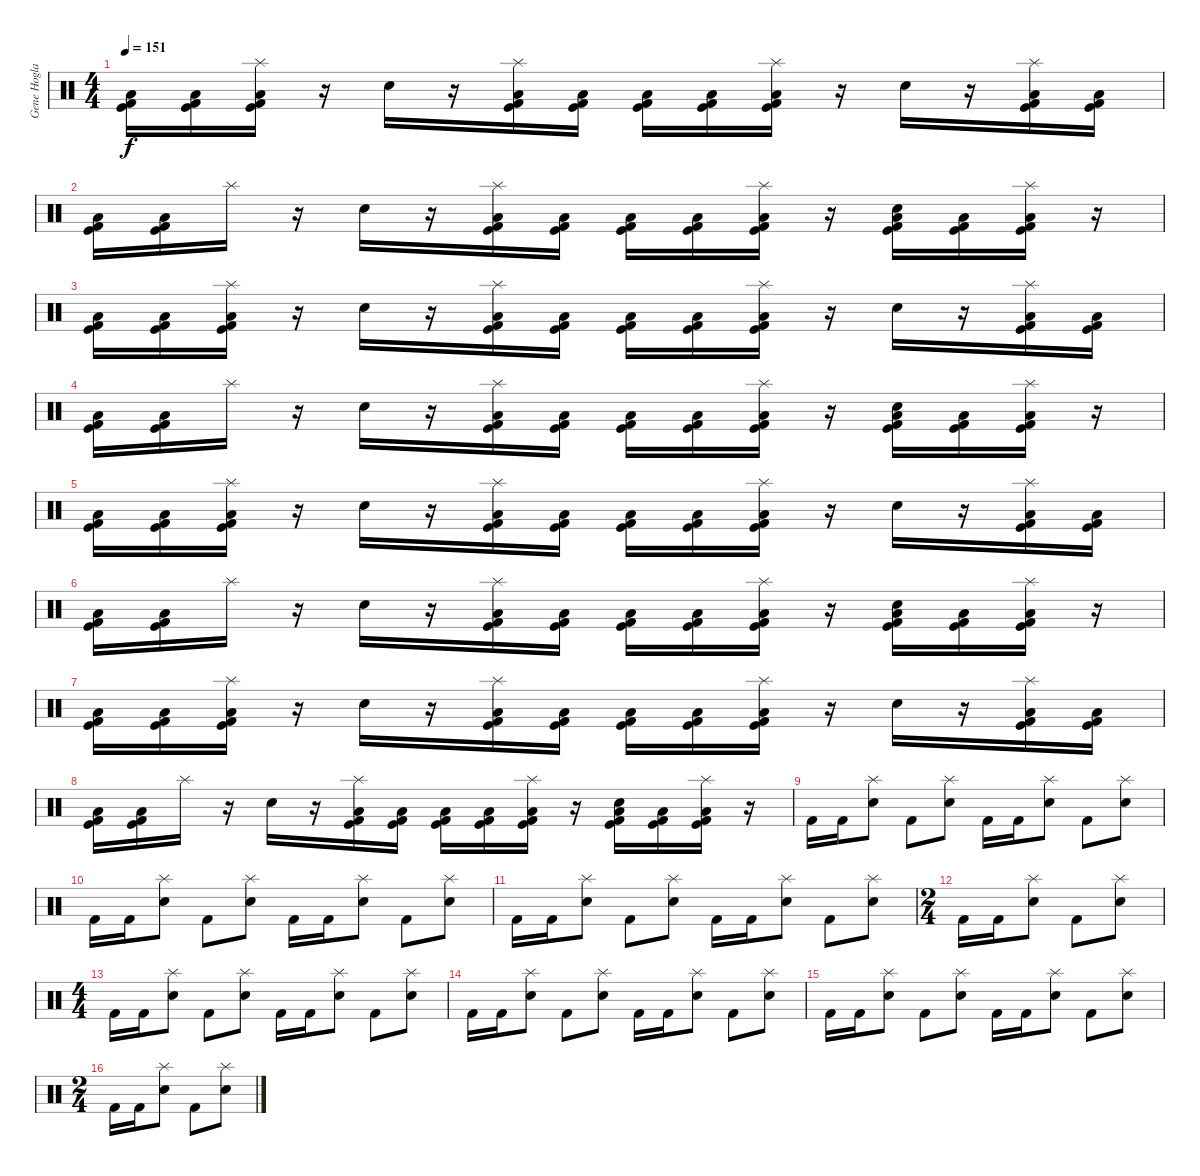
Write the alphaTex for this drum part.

\track ("Gene Hoglan" "Gene Hogla") {instrument percussion}
\staff {score}
\articulation defaults
\ts (4 4)
\tempo 151
\clef neutral
\ks c
("Low Floor Tom (hit)" "Kick (hit) 2" "Kick (hit)").16{dy f} ("Kick (hit) 2" "Low Floor Tom (hit)" "Kick (hit)").16 ("Kick (hit) 2" "Low Floor Tom (hit)" "Splash (hit)" "Kick (hit)").16 r.16 "Snare (hit) 2".16 r.16 ("Low Floor Tom (hit)" "Kick (hit) 2" "Splash (hit)" "Kick (hit)").16 ("Low Floor Tom (hit)" "Kick (hit) 2" "Kick (hit)").16 ("Low Floor Tom (hit)" "Kick (hit) 2" "Kick (hit)").16 ("Low Floor Tom (hit)" "Kick (hit) 2" "Kick (hit)").16 ("Low Floor Tom (hit)" "Kick (hit) 2" "Splash (hit)" "Kick (hit)").16 r.16 "Snare (hit) 2".16 r.16 ("Low Floor Tom (hit)" "Kick (hit) 2" "Splash (hit)" "Kick (hit)").16 ("Low Floor Tom (hit)" "Kick (hit) 2" "Kick (hit)").16 |
("Low Floor Tom (hit)" "Kick (hit) 2" "Kick (hit)").16 ("Low Floor Tom (hit)" "Kick (hit) 2" "Kick (hit)").16 "Splash (hit)".16 r.16 "Snare (hit) 2".16 r.16 ("Splash (hit)" "Low Floor Tom (hit)" "Kick (hit) 2" "Kick (hit)").16 ("Low Floor Tom (hit)" "Kick (hit) 2" "Kick (hit)").16 ("Low Floor Tom (hit)" "Kick (hit) 2" "Kick (hit)").16 ("Low Floor Tom (hit)" "Kick (hit) 2" "Kick (hit)").16 ("Splash (hit)" "Low Floor Tom (hit)" "Kick (hit) 2" "Kick (hit)").16 r.16 ("Kick (hit) 2" "Low Floor Tom (hit)" "Kick (hit)" "Snare (hit) 2").16 ("Kick (hit) 2" "Low Floor Tom (hit)" "Kick (hit)").16 ("Splash (hit)" "Kick (hit) 2" "Low Floor Tom (hit)" "Kick (hit)").16 r.16 |
("Low Floor Tom (hit)" "Kick (hit) 2" "Kick (hit)").16 ("Kick (hit) 2" "Low Floor Tom (hit)" "Kick (hit)").16 ("Kick (hit) 2" "Low Floor Tom (hit)" "Splash (hit)" "Kick (hit)").16 r.16 "Snare (hit) 2".16 r.16 ("Low Floor Tom (hit)" "Kick (hit) 2" "Splash (hit)" "Kick (hit)").16 ("Low Floor Tom (hit)" "Kick (hit) 2" "Kick (hit)").16 ("Low Floor Tom (hit)" "Kick (hit) 2" "Kick (hit)").16 ("Low Floor Tom (hit)" "Kick (hit) 2" "Kick (hit)").16 ("Low Floor Tom (hit)" "Kick (hit) 2" "Splash (hit)" "Kick (hit)").16 r.16 "Snare (hit) 2".16 r.16 ("Low Floor Tom (hit)" "Kick (hit) 2" "Splash (hit)" "Kick (hit)").16 ("Low Floor Tom (hit)" "Kick (hit) 2" "Kick (hit)").16 |
("Low Floor Tom (hit)" "Kick (hit) 2" "Kick (hit)").16 ("Low Floor Tom (hit)" "Kick (hit) 2" "Kick (hit)").16 "Splash (hit)".16 r.16 "Snare (hit) 2".16 r.16 ("Splash (hit)" "Low Floor Tom (hit)" "Kick (hit) 2" "Kick (hit)").16 ("Low Floor Tom (hit)" "Kick (hit) 2" "Kick (hit)").16 ("Low Floor Tom (hit)" "Kick (hit) 2" "Kick (hit)").16 ("Low Floor Tom (hit)" "Kick (hit) 2" "Kick (hit)").16 ("Splash (hit)" "Low Floor Tom (hit)" "Kick (hit) 2" "Kick (hit)").16 r.16 ("Kick (hit) 2" "Low Floor Tom (hit)" "Kick (hit)" "Snare (hit) 2").16 ("Kick (hit) 2" "Low Floor Tom (hit)" "Kick (hit)").16 ("Splash (hit)" "Kick (hit) 2" "Low Floor Tom (hit)" "Kick (hit)").16 r.16 |
("Low Floor Tom (hit)" "Kick (hit) 2" "Kick (hit)").16 ("Kick (hit) 2" "Low Floor Tom (hit)" "Kick (hit)").16 ("Kick (hit) 2" "Low Floor Tom (hit)" "Splash (hit)" "Kick (hit)").16 r.16 "Snare (hit) 2".16 r.16 ("Low Floor Tom (hit)" "Kick (hit) 2" "Splash (hit)" "Kick (hit)").16 ("Low Floor Tom (hit)" "Kick (hit) 2" "Kick (hit)").16 ("Low Floor Tom (hit)" "Kick (hit) 2" "Kick (hit)").16 ("Low Floor Tom (hit)" "Kick (hit) 2" "Kick (hit)").16 ("Low Floor Tom (hit)" "Kick (hit) 2" "Splash (hit)" "Kick (hit)").16 r.16 "Snare (hit) 2".16 r.16 ("Low Floor Tom (hit)" "Kick (hit) 2" "Splash (hit)" "Kick (hit)").16 ("Low Floor Tom (hit)" "Kick (hit) 2" "Kick (hit)").16 |
("Low Floor Tom (hit)" "Kick (hit) 2" "Kick (hit)").16 ("Low Floor Tom (hit)" "Kick (hit) 2" "Kick (hit)").16 "Splash (hit)".16 r.16 "Snare (hit) 2".16 r.16 ("Splash (hit)" "Low Floor Tom (hit)" "Kick (hit) 2" "Kick (hit)").16 ("Low Floor Tom (hit)" "Kick (hit) 2" "Kick (hit)").16 ("Low Floor Tom (hit)" "Kick (hit) 2" "Kick (hit)").16 ("Low Floor Tom (hit)" "Kick (hit) 2" "Kick (hit)").16 ("Splash (hit)" "Low Floor Tom (hit)" "Kick (hit) 2" "Kick (hit)").16 r.16 ("Kick (hit) 2" "Low Floor Tom (hit)" "Kick (hit)" "Snare (hit) 2").16 ("Kick (hit) 2" "Low Floor Tom (hit)" "Kick (hit)").16 ("Splash (hit)" "Kick (hit) 2" "Low Floor Tom (hit)" "Kick (hit)").16 r.16 |
("Low Floor Tom (hit)" "Kick (hit) 2" "Kick (hit)").16 ("Kick (hit) 2" "Low Floor Tom (hit)" "Kick (hit)").16 ("Kick (hit) 2" "Low Floor Tom (hit)" "Splash (hit)" "Kick (hit)").16 r.16 "Snare (hit) 2".16 r.16 ("Low Floor Tom (hit)" "Kick (hit) 2" "Splash (hit)" "Kick (hit)").16 ("Low Floor Tom (hit)" "Kick (hit) 2" "Kick (hit)").16 ("Low Floor Tom (hit)" "Kick (hit) 2" "Kick (hit)").16 ("Low Floor Tom (hit)" "Kick (hit) 2" "Kick (hit)").16 ("Low Floor Tom (hit)" "Kick (hit) 2" "Splash (hit)" "Kick (hit)").16 r.16 "Snare (hit) 2".16 r.16 ("Low Floor Tom (hit)" "Kick (hit) 2" "Splash (hit)" "Kick (hit)").16 ("Low Floor Tom (hit)" "Kick (hit) 2" "Kick (hit)").16 |
("Low Floor Tom (hit)" "Kick (hit) 2" "Kick (hit)").16 ("Low Floor Tom (hit)" "Kick (hit) 2" "Kick (hit)").16 "Splash (hit)".16 r.16 "Snare (hit) 2".16 r.16 ("Splash (hit)" "Low Floor Tom (hit)" "Kick (hit) 2" "Kick (hit)").16 ("Low Floor Tom (hit)" "Kick (hit) 2" "Kick (hit)").16 ("Low Floor Tom (hit)" "Kick (hit) 2" "Kick (hit)").16 ("Low Floor Tom (hit)" "Kick (hit) 2" "Kick (hit)").16 ("Splash (hit)" "Low Floor Tom (hit)" "Kick (hit) 2" "Kick (hit)").16 r.16 ("Kick (hit) 2" "Low Floor Tom (hit)" "Kick (hit)" "Snare (hit) 2").16 ("Kick (hit) 2" "Low Floor Tom (hit)" "Kick (hit)").16 ("Splash (hit)" "Kick (hit) 2" "Low Floor Tom (hit)" "Kick (hit)").16 r.16 |
"Kick (hit) 2".16 "Kick (hit) 2".16 ("Splash (hit)" "Snare (hit) 2").8 "Kick (hit) 2".8 ("Splash (hit)" "Snare (hit) 2").8 "Kick (hit) 2".16 "Kick (hit) 2".16 ("Splash (hit)" "Snare (hit) 2").8 "Kick (hit) 2".8 ("Splash (hit)" "Snare (hit) 2").8 |
"Kick (hit) 2".16 "Kick (hit) 2".16 ("Splash (hit)" "Snare (hit) 2").8 "Kick (hit) 2".8 ("Splash (hit)" "Snare (hit) 2").8 "Kick (hit) 2".16 "Kick (hit) 2".16 ("Splash (hit)" "Snare (hit) 2").8 "Kick (hit) 2".8 ("Splash (hit)" "Snare (hit) 2").8 |
"Kick (hit) 2".16 "Kick (hit) 2".16 ("Splash (hit)" "Snare (hit) 2").8 "Kick (hit) 2".8 ("Splash (hit)" "Snare (hit) 2").8 "Kick (hit) 2".16 "Kick (hit) 2".16 ("Splash (hit)" "Snare (hit) 2").8 "Kick (hit) 2".8 ("Splash (hit)" "Snare (hit) 2").8 |
\ts (2 4)
"Kick (hit) 2".16 "Kick (hit) 2".16 ("Splash (hit)" "Snare (hit) 2").8 "Kick (hit) 2".8 ("Splash (hit)" "Snare (hit) 2").8 |
\ts (4 4)
"Kick (hit) 2".16 "Kick (hit) 2".16 ("Splash (hit)" "Snare (hit) 2").8 "Kick (hit) 2".8 ("Splash (hit)" "Snare (hit) 2").8 "Kick (hit) 2".16 "Kick (hit) 2".16 ("Splash (hit)" "Snare (hit) 2").8 "Kick (hit) 2".8 ("Splash (hit)" "Snare (hit) 2").8 |
"Kick (hit) 2".16 "Kick (hit) 2".16 ("Splash (hit)" "Snare (hit) 2").8 "Kick (hit) 2".8 ("Splash (hit)" "Snare (hit) 2").8 "Kick (hit) 2".16 "Kick (hit) 2".16 ("Splash (hit)" "Snare (hit) 2").8 "Kick (hit) 2".8 ("Splash (hit)" "Snare (hit) 2").8 |
"Kick (hit) 2".16 "Kick (hit) 2".16 ("Splash (hit)" "Snare (hit) 2").8 "Kick (hit) 2".8 ("Splash (hit)" "Snare (hit) 2").8 "Kick (hit) 2".16 "Kick (hit) 2".16 ("Splash (hit)" "Snare (hit) 2").8 "Kick (hit) 2".8 ("Splash (hit)" "Snare (hit) 2").8 |
\ts (2 4)
"Kick (hit) 2".16 "Kick (hit) 2".16 ("Splash (hit)" "Snare (hit) 2").8 "Kick (hit) 2".8 ("Splash (hit)" "Snare (hit) 2").8
